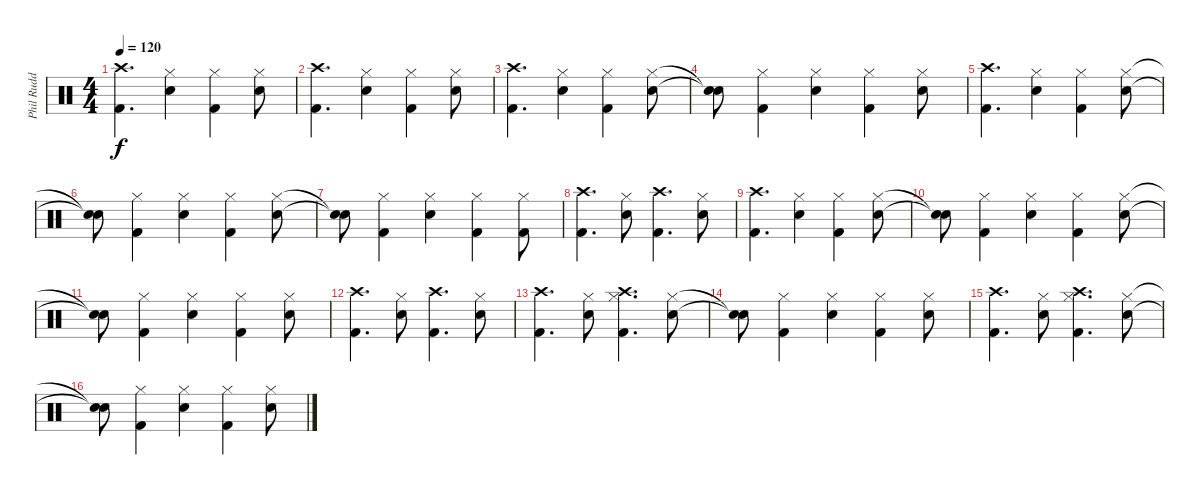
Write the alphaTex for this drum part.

\track ("Phil Rudd - Drums" "Phil Rudd ") {instrument percussion}
\staff {score}
\articulation defaults
\ts (4 4)
\tempo 120
\clef neutral
\ks c
("Crash high (hit)" "Kick (hit) 2").4{d dy f} ("Hi-Hat (closed)" "Snare (hit) 2").4 ("Hi-Hat (closed)" "Kick (hit) 2").4 ("Hi-Hat (closed)" "Snare (hit) 2").8 |
("Crash high (hit)" "Kick (hit) 2").4{d} ("Hi-Hat (closed)" "Snare (hit) 2").4 ("Hi-Hat (closed)" "Kick (hit) 2").4 ("Hi-Hat (closed)" "Snare (hit) 2").8 |
("Crash high (hit)" "Kick (hit) 2").4{d} ("Hi-Hat (closed)" "Snare (hit) 2").4 ("Hi-Hat (closed)" "Kick (hit) 2").4 ("Hi-Hat (closed)" "Snare (hit) 2").8 |
("Snare (hit)"{t} "Snare (hit)"{t}).8 ("Hi-Hat (closed)" "Kick (hit) 2").4 ("Hi-Hat (closed)" "Snare (hit) 2").4 ("Hi-Hat (closed)" "Kick (hit) 2").4 ("Hi-Hat (closed)" "Snare (hit) 2").8 |
("Crash high (hit)" "Kick (hit) 2").4{d} ("Hi-Hat (closed)" "Snare (hit) 2").4 ("Hi-Hat (closed)" "Kick (hit) 2").4 ("Hi-Hat (closed)" "Snare (hit) 2").8 |
("Snare (hit)"{t} "Snare (hit)"{t}).8 ("Hi-Hat (closed)" "Kick (hit) 2").4 ("Hi-Hat (closed)" "Snare (hit) 2").4 ("Hi-Hat (closed)" "Kick (hit) 2").4 ("Hi-Hat (closed)" "Snare (hit) 2").8 |
("Snare (hit)"{t} "Snare (hit)"{t}).8 ("Hi-Hat (closed)" "Kick (hit) 2").4 ("Hi-Hat (closed)" "Snare (hit) 2").4 ("Hi-Hat (closed)" "Kick (hit) 2").4 ("Hi-Hat (closed)" "Kick (hit) 2").8 |
("Crash high (hit)" "Kick (hit) 2").4{d} ("Hi-Hat (closed)" "Snare (hit) 2").8 ("Crash high (hit)" "Kick (hit) 2").4{d} ("Hi-Hat (closed)" "Snare (hit) 2").8 |
("Crash high (hit)" "Kick (hit) 2").4{d} ("Hi-Hat (closed)" "Snare (hit) 2").4 ("Hi-Hat (closed)" "Kick (hit) 2").4 ("Hi-Hat (closed)" "Snare (hit) 2").8 |
("Snare (hit)"{t} "Snare (hit)"{t}).8 ("Hi-Hat (closed)" "Kick (hit) 2").4 ("Hi-Hat (closed)" "Snare (hit) 2").4 ("Hi-Hat (closed)" "Kick (hit) 2").4 ("Hi-Hat (closed)" "Snare (hit) 2").8 |
("Snare (hit)"{t} "Snare (hit)"{t}).8 ("Hi-Hat (closed)" "Kick (hit) 2").4 ("Hi-Hat (closed)" "Snare (hit) 2").4 ("Hi-Hat (closed)" "Kick (hit) 2").4 ("Hi-Hat (closed)" "Snare (hit) 2").8 |
("Crash high (hit)" "Kick (hit) 2").4{d} ("Hi-Hat (closed)" "Snare (hit) 2").8 ("Crash high (hit)" "Kick (hit) 2").4{d} ("Hi-Hat (closed)" "Snare (hit) 2").8 |
("Crash high (hit)" "Kick (hit) 2").4{d} ("Hi-Hat (closed)" "Snare (hit) 2").8 ("Crash high (hit)" "Hi-Hat (closed)" "Kick (hit) 2").4{d} ("Hi-Hat (closed)" "Snare (hit) 2").8 |
("Snare (hit)"{t} "Snare (hit)"{t}).8 ("Hi-Hat (closed)" "Kick (hit) 2").4 ("Hi-Hat (closed)" "Snare (hit) 2").4 ("Hi-Hat (closed)" "Kick (hit) 2").4 ("Hi-Hat (closed)" "Snare (hit) 2").8 |
("Crash high (hit)" "Kick (hit) 2").4{d} ("Hi-Hat (closed)" "Snare (hit) 2").8 ("Crash high (hit)" "Hi-Hat (closed)" "Kick (hit) 2").4{d} ("Hi-Hat (closed)" "Snare (hit) 2").8 |
("Snare (hit)"{t} "Snare (hit)"{t}).8 ("Hi-Hat (closed)" "Kick (hit) 2").4 ("Hi-Hat (closed)" "Snare (hit) 2").4 ("Hi-Hat (closed)" "Kick (hit) 2").4 ("Hi-Hat (closed)" "Snare (hit) 2").8
